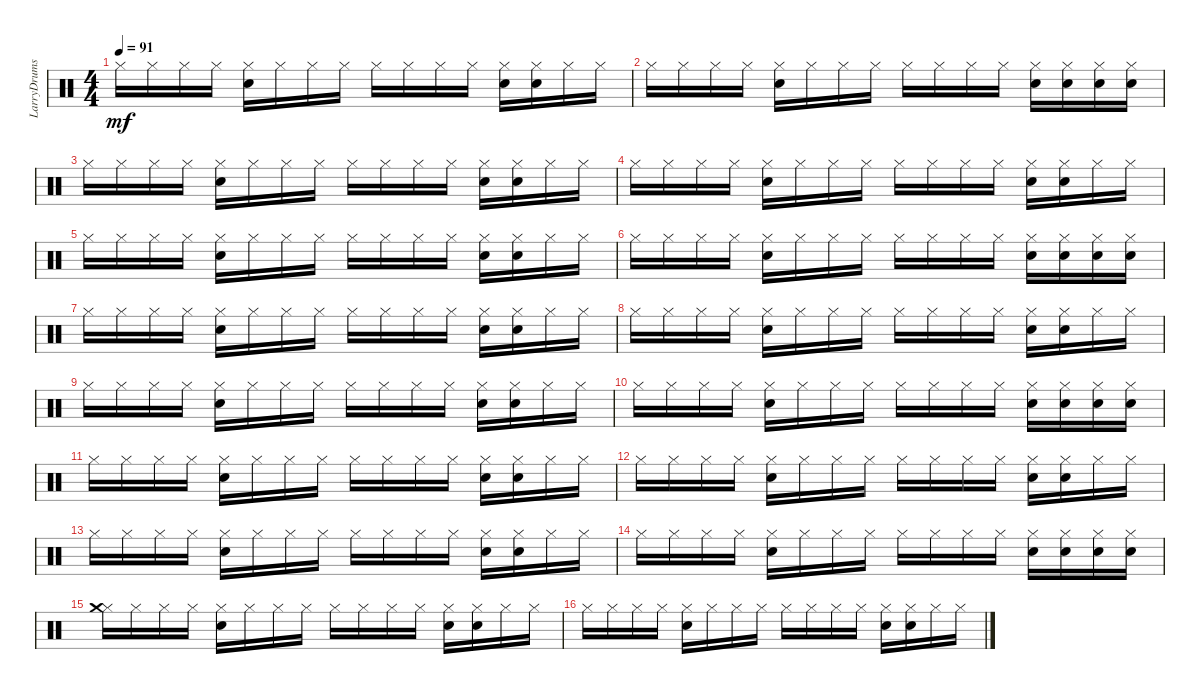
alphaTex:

\track ("LarryDrums2" "LarryDrums") {instrument percussion}
\staff {score}
\articulation defaults
\ts (4 4)
\tempo 91
\clef neutral
\ks c "Hi-Hat (closed)".16{dy mf} "Hi-Hat (closed)".16 "Hi-Hat (closed)".16 "Hi-Hat (closed)".16
("Hi-Hat (closed)" "Electric Snare (hit)").16 "Hi-Hat (closed)".16 "Hi-Hat (closed)".16 "Hi-Hat (closed)".16 "Hi-Hat (closed)".16 "Hi-Hat (closed)".16 "Hi-Hat (closed)".16 "Hi-Hat (closed)".16 ("Hi-Hat (closed)" "Electric Snare (hit)").16 ("Hi-Hat (closed)" "Electric Snare (hit)").16 "Hi-Hat (closed)".16 "Hi-Hat (closed)".16 |
"Hi-Hat (closed)".16 "Hi-Hat (closed)".16 "Hi-Hat (closed)".16 "Hi-Hat (closed)".16 ("Hi-Hat (closed)" "Electric Snare (hit)").16 "Hi-Hat (closed)".16 "Hi-Hat (closed)".16 "Hi-Hat (closed)".16 "Hi-Hat (closed)".16 "Hi-Hat (closed)".16 "Hi-Hat (closed)".16 "Hi-Hat (closed)".16 ("Hi-Hat (closed)" "Electric Snare (hit)").16 ("Hi-Hat (closed)" "Electric Snare (hit)").16 ("Hi-Hat (closed)" "Electric Snare (hit)").16 ("Hi-Hat (closed)" "Electric Snare (hit)").16 |
"Hi-Hat (closed)".16 "Hi-Hat (closed)".16 "Hi-Hat (closed)".16 "Hi-Hat (closed)".16 ("Hi-Hat (closed)" "Electric Snare (hit)").16 "Hi-Hat (closed)".16 "Hi-Hat (closed)".16 "Hi-Hat (closed)".16 "Hi-Hat (closed)".16 "Hi-Hat (closed)".16 "Hi-Hat (closed)".16 "Hi-Hat (closed)".16 ("Hi-Hat (closed)" "Electric Snare (hit)").16 ("Hi-Hat (closed)" "Electric Snare (hit)").16 "Hi-Hat (closed)".16 "Hi-Hat (closed)".16 |
"Hi-Hat (closed)".16 "Hi-Hat (closed)".16 "Hi-Hat (closed)".16 "Hi-Hat (closed)".16 ("Hi-Hat (closed)" "Electric Snare (hit)").16 "Hi-Hat (closed)".16 "Hi-Hat (closed)".16 "Hi-Hat (closed)".16 "Hi-Hat (closed)".16 "Hi-Hat (closed)".16 "Hi-Hat (closed)".16 "Hi-Hat (closed)".16 ("Hi-Hat (closed)" "Electric Snare (hit)").16 ("Hi-Hat (closed)" "Electric Snare (hit)").16 "Hi-Hat (closed)".16 "Hi-Hat (closed)".16 |
"Hi-Hat (closed)".16 "Hi-Hat (closed)".16 "Hi-Hat (closed)".16 "Hi-Hat (closed)".16 ("Hi-Hat (closed)" "Electric Snare (hit)").16 "Hi-Hat (closed)".16 "Hi-Hat (closed)".16 "Hi-Hat (closed)".16 "Hi-Hat (closed)".16 "Hi-Hat (closed)".16 "Hi-Hat (closed)".16 "Hi-Hat (closed)".16 ("Hi-Hat (closed)" "Electric Snare (hit)").16 ("Hi-Hat (closed)" "Electric Snare (hit)").16 "Hi-Hat (closed)".16 "Hi-Hat (closed)".16 |
"Hi-Hat (closed)".16 "Hi-Hat (closed)".16 "Hi-Hat (closed)".16 "Hi-Hat (closed)".16 ("Hi-Hat (closed)" "Electric Snare (hit)").16 "Hi-Hat (closed)".16 "Hi-Hat (closed)".16 "Hi-Hat (closed)".16 "Hi-Hat (closed)".16 "Hi-Hat (closed)".16 "Hi-Hat (closed)".16 "Hi-Hat (closed)".16 ("Hi-Hat (closed)" "Electric Snare (hit)").16 ("Hi-Hat (closed)" "Electric Snare (hit)").16 ("Hi-Hat (closed)" "Electric Snare (hit)").16 ("Hi-Hat (closed)" "Electric Snare (hit)").16 |
"Hi-Hat (closed)".16 "Hi-Hat (closed)".16 "Hi-Hat (closed)".16 "Hi-Hat (closed)".16 ("Hi-Hat (closed)" "Electric Snare (hit)").16 "Hi-Hat (closed)".16 "Hi-Hat (closed)".16 "Hi-Hat (closed)".16 "Hi-Hat (closed)".16 "Hi-Hat (closed)".16 "Hi-Hat (closed)".16 "Hi-Hat (closed)".16 ("Hi-Hat (closed)" "Electric Snare (hit)").16 ("Hi-Hat (closed)" "Electric Snare (hit)").16 "Hi-Hat (closed)".16 "Hi-Hat (closed)".16 |
"Hi-Hat (closed)".16 "Hi-Hat (closed)".16 "Hi-Hat (closed)".16 "Hi-Hat (closed)".16 ("Hi-Hat (closed)" "Electric Snare (hit)").16 "Hi-Hat (closed)".16 "Hi-Hat (closed)".16 "Hi-Hat (closed)".16 "Hi-Hat (closed)".16 "Hi-Hat (closed)".16 "Hi-Hat (closed)".16 "Hi-Hat (closed)".16 ("Hi-Hat (closed)" "Electric Snare (hit)").16 ("Hi-Hat (closed)" "Electric Snare (hit)").16 "Hi-Hat (closed)".16 "Hi-Hat (closed)".16 |
"Hi-Hat (closed)".16 "Hi-Hat (closed)".16 "Hi-Hat (closed)".16 "Hi-Hat (closed)".16 ("Hi-Hat (closed)" "Electric Snare (hit)").16 "Hi-Hat (closed)".16 "Hi-Hat (closed)".16 "Hi-Hat (closed)".16 "Hi-Hat (closed)".16 "Hi-Hat (closed)".16 "Hi-Hat (closed)".16 "Hi-Hat (closed)".16 ("Hi-Hat (closed)" "Electric Snare (hit)").16 ("Hi-Hat (closed)" "Electric Snare (hit)").16 "Hi-Hat (closed)".16 "Hi-Hat (closed)".16 |
"Hi-Hat (closed)".16 "Hi-Hat (closed)".16 "Hi-Hat (closed)".16 "Hi-Hat (closed)".16 ("Hi-Hat (closed)" "Electric Snare (hit)").16 "Hi-Hat (closed)".16 "Hi-Hat (closed)".16 "Hi-Hat (closed)".16 "Hi-Hat (closed)".16 "Hi-Hat (closed)".16 "Hi-Hat (closed)".16 "Hi-Hat (closed)".16 ("Hi-Hat (closed)" "Electric Snare (hit)").16 ("Hi-Hat (closed)" "Electric Snare (hit)").16 ("Hi-Hat (closed)" "Electric Snare (hit)").16 ("Hi-Hat (closed)" "Electric Snare (hit)").16 |
"Hi-Hat (closed)".16 "Hi-Hat (closed)".16 "Hi-Hat (closed)".16 "Hi-Hat (closed)".16 ("Hi-Hat (closed)" "Electric Snare (hit)").16 "Hi-Hat (closed)".16 "Hi-Hat (closed)".16 "Hi-Hat (closed)".16 "Hi-Hat (closed)".16 "Hi-Hat (closed)".16 "Hi-Hat (closed)".16 "Hi-Hat (closed)".16 ("Hi-Hat (closed)" "Electric Snare (hit)").16 ("Hi-Hat (closed)" "Electric Snare (hit)").16 "Hi-Hat (closed)".16 "Hi-Hat (closed)".16 |
"Hi-Hat (closed)".16 "Hi-Hat (closed)".16 "Hi-Hat (closed)".16 "Hi-Hat (closed)".16 ("Hi-Hat (closed)" "Electric Snare (hit)").16 "Hi-Hat (closed)".16 "Hi-Hat (closed)".16 "Hi-Hat (closed)".16 "Hi-Hat (closed)".16 "Hi-Hat (closed)".16 "Hi-Hat (closed)".16 "Hi-Hat (closed)".16 ("Hi-Hat (closed)" "Electric Snare (hit)").16 ("Hi-Hat (closed)" "Electric Snare (hit)").16 "Hi-Hat (closed)".16 "Hi-Hat (closed)".16 |
"Hi-Hat (closed)".16 "Hi-Hat (closed)".16 "Hi-Hat (closed)".16 "Hi-Hat (closed)".16 ("Hi-Hat (closed)" "Electric Snare (hit)").16 "Hi-Hat (closed)".16 "Hi-Hat (closed)".16 "Hi-Hat (closed)".16 "Hi-Hat (closed)".16 "Hi-Hat (closed)".16 "Hi-Hat (closed)".16 "Hi-Hat (closed)".16 ("Hi-Hat (closed)" "Electric Snare (hit)").16 ("Hi-Hat (closed)" "Electric Snare (hit)").16 "Hi-Hat (closed)".16 "Hi-Hat (closed)".16 |
"Hi-Hat (closed)".16 "Hi-Hat (closed)".16 "Hi-Hat (closed)".16 "Hi-Hat (closed)".16 ("Hi-Hat (closed)" "Electric Snare (hit)").16 "Hi-Hat (closed)".16 "Hi-Hat (closed)".16 "Hi-Hat (closed)".16 "Hi-Hat (closed)".16 "Hi-Hat (closed)".16 "Hi-Hat (closed)".16 "Hi-Hat (closed)".16 ("Hi-Hat (closed)" "Electric Snare (hit)").16 ("Hi-Hat (closed)" "Electric Snare (hit)").16 ("Hi-Hat (closed)" "Electric Snare (hit)").16 ("Hi-Hat (closed)" "Electric Snare (hit)").16 |
("Hi-Hat (closed)" "Crash medium (hit)").16 "Hi-Hat (closed)".16 "Hi-Hat (closed)".16 "Hi-Hat (closed)".16 ("Hi-Hat (closed)" "Electric Snare (hit)").16 "Hi-Hat (closed)".16 "Hi-Hat (closed)".16 "Hi-Hat (closed)".16 "Hi-Hat (closed)".16 "Hi-Hat (closed)".16 "Hi-Hat (closed)".16 "Hi-Hat (closed)".16 ("Hi-Hat (closed)" "Electric Snare (hit)").16 ("Hi-Hat (closed)" "Electric Snare (hit)").16 "Hi-Hat (closed)".16 "Hi-Hat (closed)".16 |
"Hi-Hat (closed)".16 "Hi-Hat (closed)".16 "Hi-Hat (closed)".16 "Hi-Hat (closed)".16 ("Hi-Hat (closed)" "Electric Snare (hit)").16 "Hi-Hat (closed)".16 "Hi-Hat (closed)".16 "Hi-Hat (closed)".16 "Hi-Hat (closed)".16 "Hi-Hat (closed)".16 "Hi-Hat (closed)".16 "Hi-Hat (closed)".16 ("Hi-Hat (closed)" "Electric Snare (hit)").16 ("Hi-Hat (closed)" "Electric Snare (hit)").16 "Hi-Hat (closed)".16 "Hi-Hat (closed)".16
